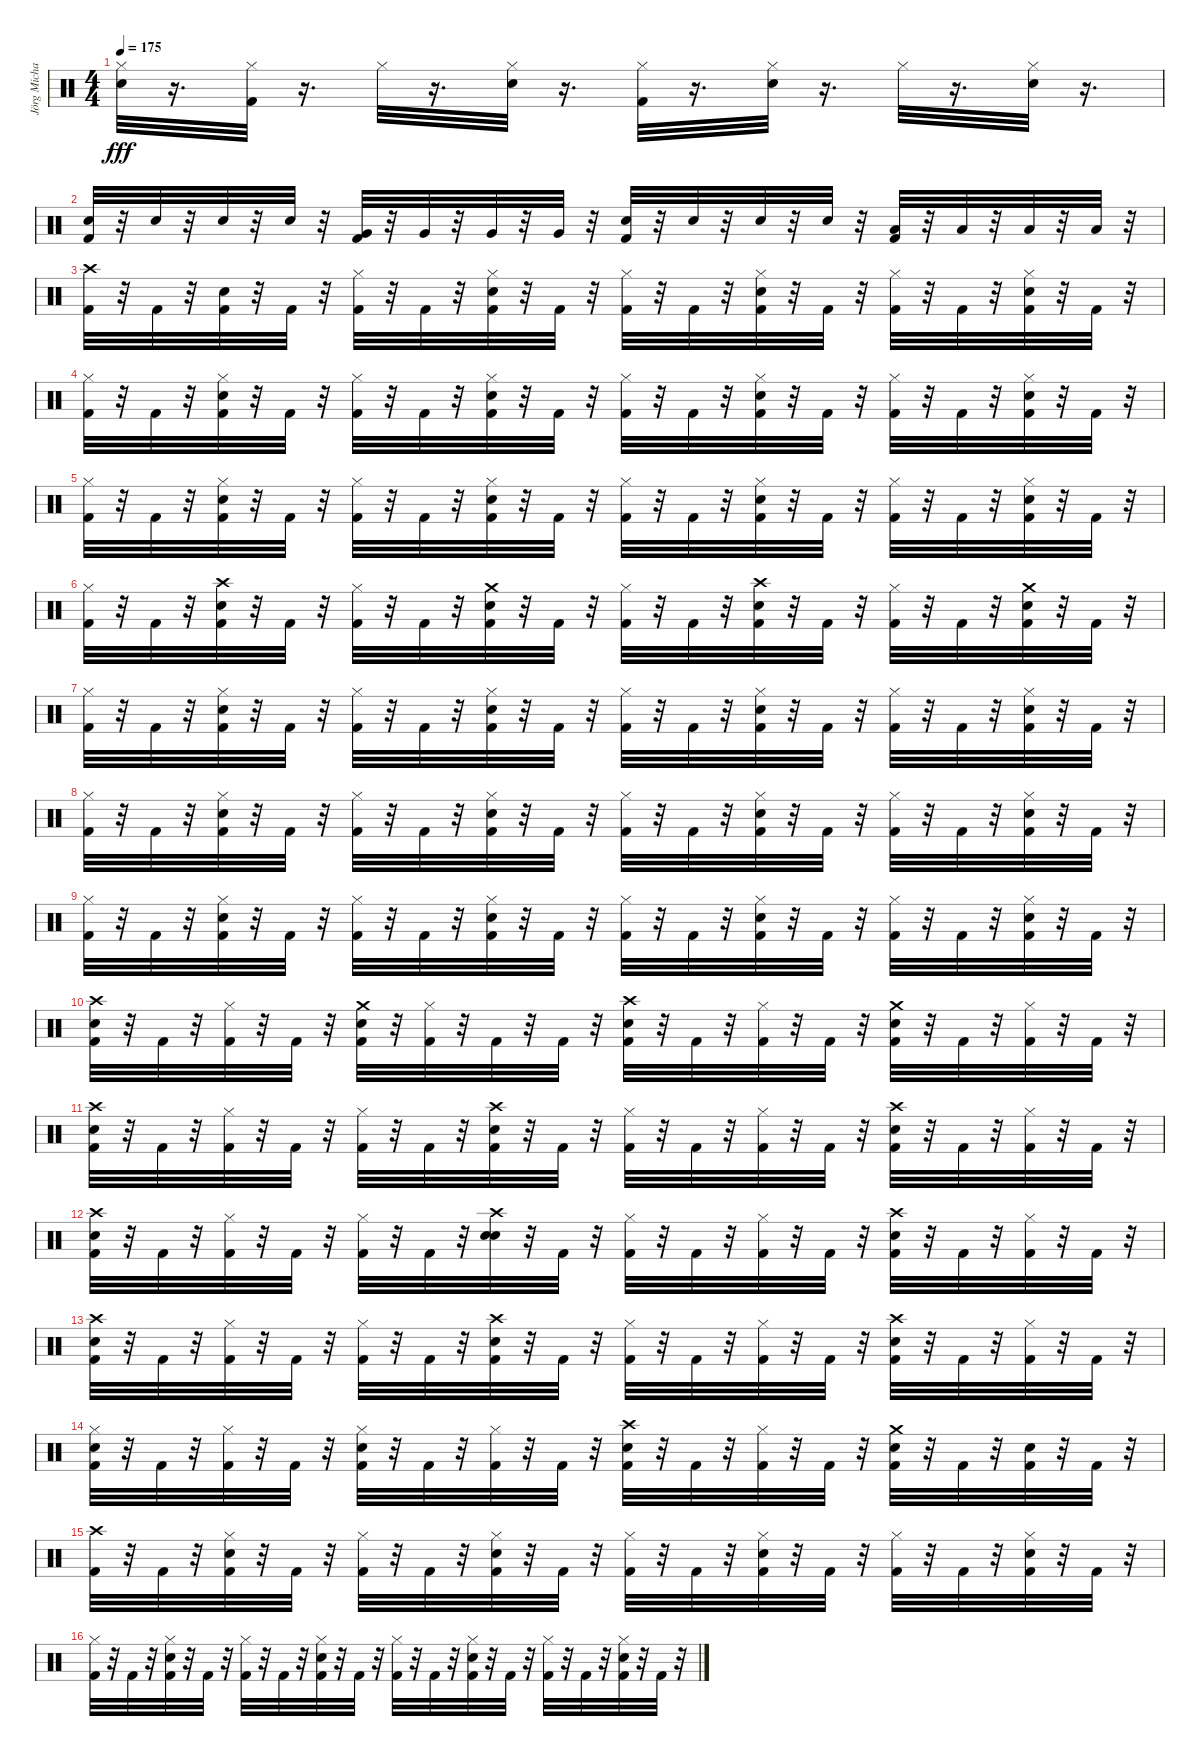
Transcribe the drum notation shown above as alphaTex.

\track ("Jörg Michael " "Jörg Micha") {instrument percussion}
\staff {score}
\articulation defaults
\ts (4 4)
\tempo 175
\clef neutral
\ks c
("Hi-Hat (closed)" "Snare (hit) 2").32{dy fff} r.16{d} ("Hi-Hat (closed)" "Kick (hit) 2").32 r.16{d} "Hi-Hat (closed)".32 r.16{d} ("Hi-Hat (closed)" "Snare (hit) 2").32 r.16{d} ("Hi-Hat (closed)" "Kick (hit) 2").32 r.16{d} ("Hi-Hat (closed)" "Snare (hit) 2").32 r.16{d} "Hi-Hat (closed)".32 r.16{d} ("Hi-Hat (closed)" "Snare (hit) 2").32 r.16{d} |
("Snare (hit) 2" "Kick (hit) 2").32 r.32 "Snare (hit) 2".32 r.32 "Snare (hit) 2".32 r.32 "Snare (hit) 2".32 r.32 ("Kick (hit) 2" "Very Low Tom (hit)").32 r.32 "Very Low Tom (hit)".32 r.32 "Very Low Tom (hit)".32 r.32 "Very Low Tom (hit)".32 r.32 ("Snare (hit) 2" "Kick (hit) 2").32 r.32 "Snare (hit) 2".32 r.32 "Snare (hit) 2".32 r.32 "Snare (hit) 2".32 r.32 ("Low Floor Tom (hit)" "Kick (hit) 2").32 r.32 "Low Floor Tom (hit)".32 r.32 "Low Floor Tom (hit)".32 r.32 "Low Floor Tom (hit)".32 r.32 |
("Crash high (hit)" "Kick (hit) 2").32 r.32 "Kick (hit) 2".32 r.32 ("Snare (hit) 2" "Kick (hit) 2").32 r.32 "Kick (hit) 2".32 r.32 ("Hi-Hat (closed)" "Kick (hit) 2").32 r.32 "Kick (hit) 2".32 r.32 ("Hi-Hat (closed)" "Snare (hit) 2" "Kick (hit) 2").32 r.32 "Kick (hit) 2".32 r.32 ("Hi-Hat (closed)" "Kick (hit) 2").32 r.32 "Kick (hit) 2".32 r.32 ("Hi-Hat (closed)" "Snare (hit) 2" "Kick (hit) 2").32 r.32 "Kick (hit) 2".32 r.32 ("Hi-Hat (closed)" "Kick (hit) 2").32 r.32 "Kick (hit) 2".32 r.32 ("Hi-Hat (closed)" "Snare (hit) 2" "Kick (hit) 2").32 r.32 "Kick (hit) 2".32 r.32 |
("Hi-Hat (closed)" "Kick (hit) 2").32 r.32 "Kick (hit) 2".32 r.32 ("Hi-Hat (closed)" "Snare (hit) 2" "Kick (hit) 2").32 r.32 "Kick (hit) 2".32 r.32 ("Hi-Hat (closed)" "Kick (hit) 2").32 r.32 "Kick (hit) 2".32 r.32 ("Hi-Hat (closed)" "Snare (hit) 2" "Kick (hit) 2").32 r.32 "Kick (hit) 2".32 r.32 ("Hi-Hat (closed)" "Kick (hit) 2").32 r.32 "Kick (hit) 2".32 r.32 ("Hi-Hat (closed)" "Snare (hit) 2" "Kick (hit) 2").32 r.32 "Kick (hit) 2".32 r.32 ("Hi-Hat (closed)" "Kick (hit) 2").32 r.32 "Kick (hit) 2".32 r.32 ("Hi-Hat (closed)" "Snare (hit) 2" "Kick (hit) 2").32 r.32 "Kick (hit) 2".32 r.32 |
("Hi-Hat (closed)" "Kick (hit) 2").32 r.32 "Kick (hit) 2".32 r.32 ("Hi-Hat (closed)" "Snare (hit) 2" "Kick (hit) 2").32 r.32 "Kick (hit) 2".32 r.32 ("Hi-Hat (closed)" "Kick (hit) 2").32 r.32 "Kick (hit) 2".32 r.32 ("Hi-Hat (closed)" "Snare (hit) 2" "Kick (hit) 2").32 r.32 "Kick (hit) 2".32 r.32 ("Hi-Hat (closed)" "Kick (hit) 2").32 r.32 "Kick (hit) 2".32 r.32 ("Hi-Hat (closed)" "Snare (hit) 2" "Kick (hit) 2").32 r.32 "Kick (hit) 2".32 r.32 ("Hi-Hat (closed)" "Kick (hit) 2").32 r.32 "Kick (hit) 2".32 r.32 ("Hi-Hat (closed)" "Snare (hit) 2" "Kick (hit) 2").32 r.32 "Kick (hit) 2".32 r.32 |
("Hi-Hat (closed)" "Kick (hit) 2").32 r.32 "Kick (hit) 2".32 r.32 ("Crash high (hit)" "Snare (hit) 2" "Kick (hit) 2").32 r.32 "Kick (hit) 2".32 r.32 ("Hi-Hat (closed)" "Kick (hit) 2").32 r.32 "Kick (hit) 2".32 r.32 ("Crash medium (hit)" "Snare (hit) 2" "Kick (hit) 2").32 r.32 "Kick (hit) 2".32 r.32 ("Hi-Hat (closed)" "Kick (hit) 2").32 r.32 "Kick (hit) 2".32 r.32 ("Crash high (hit)" "Snare (hit) 2" "Kick (hit) 2").32 r.32 "Kick (hit) 2".32 r.32 ("Hi-Hat (closed)" "Kick (hit) 2").32 r.32 "Kick (hit) 2".32 r.32 ("Crash medium (hit)" "Snare (hit) 2" "Kick (hit) 2").32 r.32 "Kick (hit) 2".32 r.32 |
("Hi-Hat (closed)" "Kick (hit) 2").32 r.32 "Kick (hit) 2".32 r.32 ("Hi-Hat (closed)" "Snare (hit) 2" "Kick (hit) 2").32 r.32 "Kick (hit) 2".32 r.32 ("Hi-Hat (closed)" "Kick (hit) 2").32 r.32 "Kick (hit) 2".32 r.32 ("Hi-Hat (closed)" "Snare (hit) 2" "Kick (hit) 2").32 r.32 "Kick (hit) 2".32 r.32 ("Hi-Hat (closed)" "Kick (hit) 2").32 r.32 "Kick (hit) 2".32 r.32 ("Hi-Hat (closed)" "Snare (hit) 2" "Kick (hit) 2").32 r.32 "Kick (hit) 2".32 r.32 ("Hi-Hat (closed)" "Kick (hit) 2").32 r.32 "Kick (hit) 2".32 r.32 ("Hi-Hat (closed)" "Snare (hit) 2" "Kick (hit) 2").32 r.32 "Kick (hit) 2".32 r.32 |
("Hi-Hat (closed)" "Kick (hit) 2").32 r.32 "Kick (hit) 2".32 r.32 ("Hi-Hat (closed)" "Snare (hit) 2" "Kick (hit) 2").32 r.32 "Kick (hit) 2".32 r.32 ("Hi-Hat (closed)" "Kick (hit) 2").32 r.32 "Kick (hit) 2".32 r.32 ("Hi-Hat (closed)" "Snare (hit) 2" "Kick (hit) 2").32 r.32 "Kick (hit) 2".32 r.32 ("Hi-Hat (closed)" "Kick (hit) 2").32 r.32 "Kick (hit) 2".32 r.32 ("Hi-Hat (closed)" "Snare (hit) 2" "Kick (hit) 2").32 r.32 "Kick (hit) 2".32 r.32 ("Hi-Hat (closed)" "Kick (hit) 2").32 r.32 "Kick (hit) 2".32 r.32 ("Hi-Hat (closed)" "Snare (hit) 2" "Kick (hit) 2").32 r.32 "Kick (hit) 2".32 r.32 |
("Hi-Hat (closed)" "Kick (hit) 2").32 r.32 "Kick (hit) 2".32 r.32 ("Hi-Hat (closed)" "Snare (hit) 2" "Kick (hit) 2").32 r.32 "Kick (hit) 2".32 r.32 ("Hi-Hat (closed)" "Kick (hit) 2").32 r.32 "Kick (hit) 2".32 r.32 ("Hi-Hat (closed)" "Snare (hit) 2" "Kick (hit) 2").32 r.32 "Kick (hit) 2".32 r.32 ("Hi-Hat (closed)" "Kick (hit) 2").32 r.32 "Kick (hit) 2".32 r.32 ("Hi-Hat (closed)" "Snare (hit) 2" "Kick (hit) 2").32 r.32 "Kick (hit) 2".32 r.32 ("Hi-Hat (closed)" "Kick (hit) 2").32 r.32 "Kick (hit) 2".32 r.32 ("Hi-Hat (closed)" "Snare (hit) 2" "Kick (hit) 2").32 r.32 "Kick (hit) 2".32 r.32 |
("Crash high (hit)" "Snare (hit) 2" "Kick (hit) 2").32 r.32 "Kick (hit) 2".32 r.32 ("Hi-Hat (closed)" "Kick (hit) 2").32 r.32 "Kick (hit) 2".32 r.32 ("Crash medium (hit)" "Snare (hit) 2" "Kick (hit) 2").32 r.32 ("Hi-Hat (closed)" "Kick (hit) 2").32 r.32 "Kick (hit) 2".32 r.32 "Kick (hit) 2".32 r.32 ("Crash high (hit)" "Snare (hit) 2" "Kick (hit) 2").32 r.32 "Kick (hit) 2".32 r.32 ("Hi-Hat (closed)" "Kick (hit) 2").32 r.32 "Kick (hit) 2".32 r.32 ("Crash medium (hit)" "Snare (hit) 2" "Kick (hit) 2").32 r.32 "Kick (hit) 2".32 r.32 ("Hi-Hat (closed)" "Kick (hit) 2").32 r.32 "Kick (hit) 2".32 r.32 |
("Crash high (hit)" "Snare (hit) 2" "Kick (hit) 2").32 r.32 "Kick (hit) 2".32 r.32 ("Hi-Hat (closed)" "Kick (hit) 2").32 r.32 "Kick (hit) 2".32 r.32 ("Hi-Hat (closed)" "Kick (hit) 2").32 r.32 "Kick (hit) 2".32 r.32 ("Crash high (hit)" "Snare (hit) 2" "Kick (hit) 2").32 r.32 "Kick (hit) 2".32 r.32 ("Hi-Hat (closed)" "Kick (hit) 2").32 r.32 "Kick (hit) 2".32 r.32 ("Hi-Hat (closed)" "Kick (hit) 2").32 r.32 "Kick (hit) 2".32 r.32 ("Crash high (hit)" "Snare (hit) 2" "Kick (hit) 2").32 r.32 "Kick (hit) 2".32 r.32 ("Hi-Hat (closed)" "Kick (hit) 2").32 r.32 "Kick (hit) 2".32 r.32 |
("Crash high (hit)" "Snare (hit) 2" "Kick (hit) 2").32 r.32 "Kick (hit) 2".32 r.32 ("Hi-Hat (closed)" "Kick (hit) 2").32 r.32 "Kick (hit) 2".32 r.32 ("Hi-Hat (closed)" "Kick (hit) 2").32 r.32 "Kick (hit) 2".32 r.32 ("Crash high (hit)" "Snare (hit) 2" "Snare (hit)").32 r.32 "Kick (hit) 2".32 r.32 ("Hi-Hat (closed)" "Kick (hit) 2").32 r.32 "Kick (hit) 2".32 r.32 ("Hi-Hat (closed)" "Kick (hit) 2").32 r.32 "Kick (hit) 2".32 r.32 ("Crash high (hit)" "Snare (hit) 2" "Kick (hit) 2").32 r.32 "Kick (hit) 2".32 r.32 ("Hi-Hat (closed)" "Kick (hit) 2").32 r.32 "Kick (hit) 2".32 r.32 |
("Crash high (hit)" "Snare (hit) 2" "Kick (hit) 2").32 r.32 "Kick (hit) 2".32 r.32 ("Hi-Hat (closed)" "Kick (hit) 2").32 r.32 "Kick (hit) 2".32 r.32 ("Hi-Hat (closed)" "Kick (hit) 2").32 r.32 "Kick (hit) 2".32 r.32 ("Crash high (hit)" "Snare (hit) 2" "Kick (hit) 2").32 r.32 "Kick (hit) 2".32 r.32 ("Hi-Hat (closed)" "Kick (hit) 2").32 r.32 "Kick (hit) 2".32 r.32 ("Hi-Hat (closed)" "Kick (hit) 2").32 r.32 "Kick (hit) 2".32 r.32 ("Crash high (hit)" "Snare (hit) 2" "Kick (hit) 2").32 r.32 "Kick (hit) 2".32 r.32 ("Hi-Hat (closed)" "Kick (hit) 2").32 r.32 "Kick (hit) 2".32 r.32 |
("Hi-Hat (closed)" "Snare (hit) 2" "Kick (hit) 2").32 r.32 "Kick (hit) 2".32 r.32 ("Hi-Hat (closed)" "Kick (hit) 2").32 r.32 "Kick (hit) 2".32 r.32 ("Hi-Hat (closed)" "Snare (hit) 2" "Kick (hit) 2").32 r.32 "Kick (hit) 2".32 r.32 ("Hi-Hat (closed)" "Kick (hit) 2").32 r.32 "Kick (hit) 2".32 r.32 ("Crash high (hit)" "Snare (hit) 2" "Kick (hit) 2").32 r.32 "Kick (hit) 2".32 r.32 ("Hi-Hat (closed)" "Kick (hit) 2").32 r.32 "Kick (hit) 2".32 r.32 ("Crash medium (hit)" "Snare (hit) 2" "Kick (hit) 2").32 r.32 "Kick (hit) 2".32 r.32 ("Snare (hit) 2" "Kick (hit) 2").32 r.32 "Kick (hit) 2".32 r.32 |
("Crash high (hit)" "Kick (hit) 2").32 r.32 "Kick (hit) 2".32 r.32 ("Hi-Hat (closed)" "Snare (hit) 2" "Kick (hit) 2").32 r.32 "Kick (hit) 2".32 r.32 ("Hi-Hat (closed)" "Kick (hit) 2").32 r.32 "Kick (hit) 2".32 r.32 ("Hi-Hat (closed)" "Snare (hit) 2" "Kick (hit) 2").32 r.32 "Kick (hit) 2".32 r.32 ("Hi-Hat (closed)" "Kick (hit) 2").32 r.32 "Kick (hit) 2".32 r.32 ("Hi-Hat (closed)" "Snare (hit) 2" "Kick (hit) 2").32 r.32 "Kick (hit) 2".32 r.32 ("Hi-Hat (closed)" "Kick (hit) 2").32 r.32 "Kick (hit) 2".32 r.32 ("Hi-Hat (closed)" "Snare (hit) 2" "Kick (hit) 2").32 r.32 "Kick (hit) 2".32 r.32 |
("Hi-Hat (closed)" "Kick (hit) 2").32 r.32 "Kick (hit) 2".32 r.32 ("Hi-Hat (closed)" "Snare (hit) 2" "Kick (hit) 2").32 r.32 "Kick (hit) 2".32 r.32 ("Hi-Hat (closed)" "Kick (hit) 2").32 r.32 "Kick (hit) 2".32 r.32 ("Hi-Hat (closed)" "Snare (hit) 2" "Kick (hit) 2").32 r.32 "Kick (hit) 2".32 r.32 ("Hi-Hat (closed)" "Kick (hit) 2").32 r.32 "Kick (hit) 2".32 r.32 ("Hi-Hat (closed)" "Snare (hit) 2" "Kick (hit) 2").32 r.32 "Kick (hit) 2".32 r.32 ("Hi-Hat (closed)" "Kick (hit) 2").32 r.32 "Kick (hit) 2".32 r.32 ("Hi-Hat (closed)" "Snare (hit) 2" "Kick (hit) 2").32 r.32 "Kick (hit) 2".32 r.32
